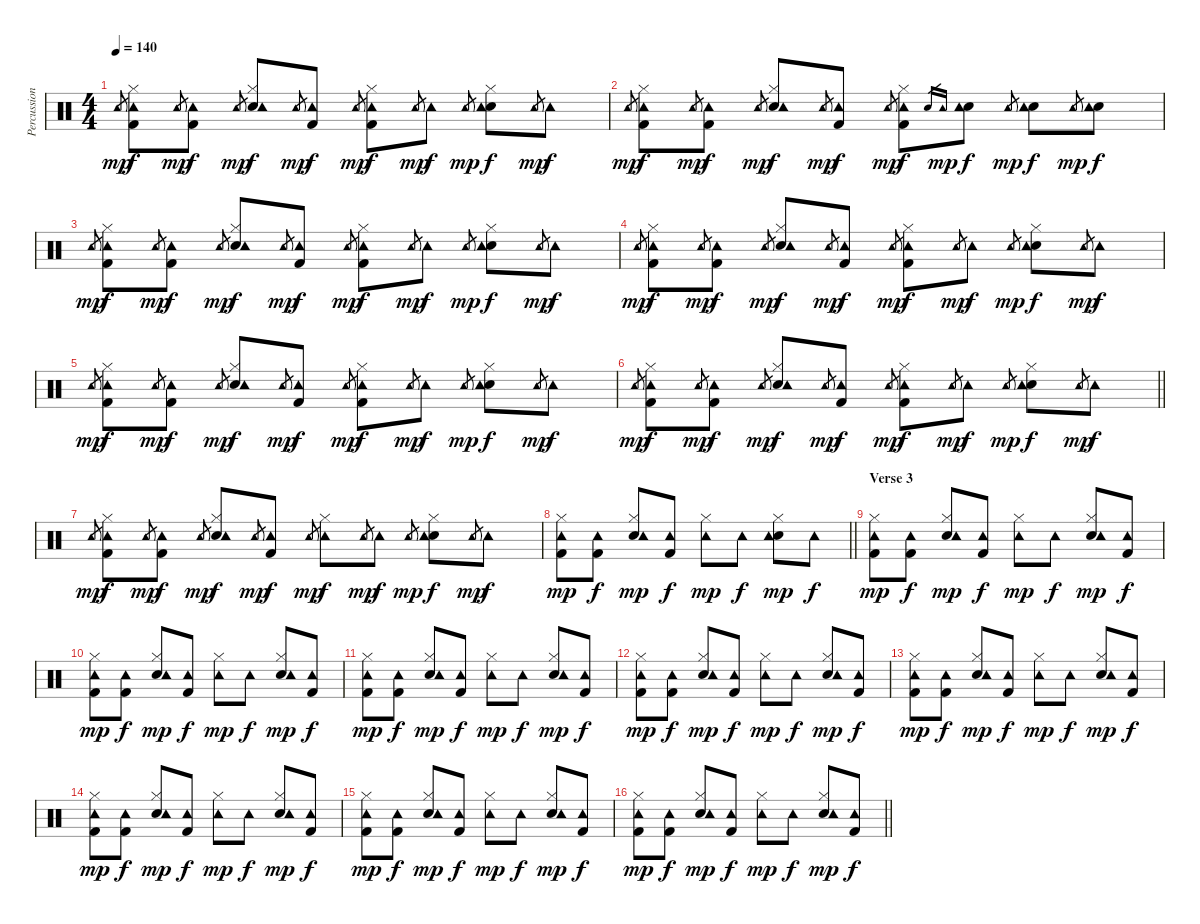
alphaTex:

\track ("Percussion" "Percussion") {instrument percussion}
\staff {score}
\articulation defaults
\ts (4 4)
\tempo 140
\clef neutral
\ks c "Tambourine (hit)".8{gr dy mp}
("Kick (hit) 2" "Hi-Hat (closed)" "Tambourine (hit)").8{dy f} "Tambourine (hit)".8{gr dy mp} ("Kick (hit) 2" "Tambourine (hit)").8{dy f} "Tambourine (hit)".8{gr dy mp} ("Snare (hit) 2" "Hi-Hat (closed)" "Tambourine (hit)").8{dy f} "Tambourine (hit)".8{gr dy mp} ("Kick (hit) 2" "Tambourine (hit)").8{dy f} "Tambourine (hit)".8{gr dy mp} ("Kick (hit) 2" "Hi-Hat (closed)" "Tambourine (hit)").8{dy f} "Tambourine (hit)".8{gr dy mp} "Tambourine (hit)".8{dy f} "Tambourine (hit)".8{gr dy mp} ("Snare (hit) 2" "Hi-Hat (closed)" "Tambourine (hit)").8{dy f} "Tambourine (hit)".8{gr dy mp} "Tambourine (hit)".8{dy f} |
"Tambourine (hit)".8{gr dy mp} ("Kick (hit) 2" "Hi-Hat (closed)" "Tambourine (hit)").8{dy f} "Tambourine (hit)".8{gr dy mp} ("Kick (hit) 2" "Tambourine (hit)").8{dy f} "Tambourine (hit)".8{gr dy mp} ("Snare (hit) 2" "Hi-Hat (closed)" "Tambourine (hit)").8{dy f} "Tambourine (hit)".8{gr dy mp} ("Kick (hit) 2" "Tambourine (hit)").8{dy f} "Tambourine (hit)".8{gr dy mp} ("Kick (hit) 2" "Hi-Hat (closed)" "Tambourine (hit)").8{dy f} "Snare (hit) 2".16{gr} "Tambourine (hit)".16{gr dy mp} ("Snare (hit) 2" "Tambourine (hit)").8{dy f} "Tambourine (hit)".8{gr dy mp} ("Snare (hit) 2" "Tambourine (hit)").8{dy f} "Tambourine (hit)".8{gr dy mp} ("Snare (hit) 2" "Tambourine (hit)").8{dy f} |
"Tambourine (hit)".8{gr dy mp} ("Kick (hit) 2" "Hi-Hat (closed)" "Tambourine (hit)").8{dy f} "Tambourine (hit)".8{gr dy mp} ("Kick (hit) 2" "Tambourine (hit)").8{dy f} "Tambourine (hit)".8{gr dy mp} ("Snare (hit) 2" "Hi-Hat (closed)" "Tambourine (hit)").8{dy f} "Tambourine (hit)".8{gr dy mp} ("Kick (hit) 2" "Tambourine (hit)").8{dy f} "Tambourine (hit)".8{gr dy mp} ("Kick (hit) 2" "Hi-Hat (closed)" "Tambourine (hit)").8{dy f} "Tambourine (hit)".8{gr dy mp} "Tambourine (hit)".8{dy f} "Tambourine (hit)".8{gr dy mp} ("Snare (hit) 2" "Hi-Hat (closed)" "Tambourine (hit)").8{dy f} "Tambourine (hit)".8{gr dy mp} "Tambourine (hit)".8{dy f} |
"Tambourine (hit)".8{gr dy mp} ("Kick (hit) 2" "Hi-Hat (closed)" "Tambourine (hit)").8{dy f} "Tambourine (hit)".8{gr dy mp} ("Kick (hit) 2" "Tambourine (hit)").8{dy f} "Tambourine (hit)".8{gr dy mp} ("Snare (hit) 2" "Hi-Hat (closed)" "Tambourine (hit)").8{dy f} "Tambourine (hit)".8{gr dy mp} ("Kick (hit) 2" "Tambourine (hit)").8{dy f} "Tambourine (hit)".8{gr dy mp} ("Kick (hit) 2" "Hi-Hat (closed)" "Tambourine (hit)").8{dy f} "Tambourine (hit)".8{gr dy mp} "Tambourine (hit)".8{dy f} "Tambourine (hit)".8{gr dy mp} ("Snare (hit) 2" "Hi-Hat (closed)" "Tambourine (hit)").8{dy f} "Tambourine (hit)".8{gr dy mp} "Tambourine (hit)".8{dy f} |
"Tambourine (hit)".8{gr dy mp} ("Kick (hit) 2" "Hi-Hat (closed)" "Tambourine (hit)").8{dy f} "Tambourine (hit)".8{gr dy mp} ("Kick (hit) 2" "Tambourine (hit)").8{dy f} "Tambourine (hit)".8{gr dy mp} ("Snare (hit) 2" "Hi-Hat (closed)" "Tambourine (hit)").8{dy f} "Tambourine (hit)".8{gr dy mp} ("Kick (hit) 2" "Tambourine (hit)").8{dy f} "Tambourine (hit)".8{gr dy mp} ("Kick (hit) 2" "Hi-Hat (closed)" "Tambourine (hit)").8{dy f} "Tambourine (hit)".8{gr dy mp} "Tambourine (hit)".8{dy f} "Tambourine (hit)".8{gr dy mp} ("Snare (hit) 2" "Hi-Hat (closed)" "Tambourine (hit)").8{dy f} "Tambourine (hit)".8{gr dy mp} "Tambourine (hit)".8{dy f} |
\barLineRight lightlight "Tambourine (hit)".8{gr dy mp}
("Kick (hit) 2" "Hi-Hat (closed)" "Tambourine (hit)").8{dy f} "Tambourine (hit)".8{gr dy mp} ("Kick (hit) 2" "Tambourine (hit)").8{dy f} "Tambourine (hit)".8{gr dy mp} ("Snare (hit) 2" "Hi-Hat (closed)" "Tambourine (hit)").8{dy f} "Tambourine (hit)".8{gr dy mp} ("Kick (hit) 2" "Tambourine (hit)").8{dy f} "Tambourine (hit)".8{gr dy mp} ("Kick (hit) 2" "Hi-Hat (closed)" "Tambourine (hit)").8{dy f} "Tambourine (hit)".8{gr dy mp} "Tambourine (hit)".8{dy f} "Tambourine (hit)".8{gr dy mp} ("Snare (hit) 2" "Hi-Hat (closed)" "Tambourine (hit)").8{dy f} "Tambourine (hit)".8{gr dy mp} "Tambourine (hit)".8{dy f} |
"Tambourine (hit)".8{gr dy mp} ("Kick (hit) 2" "Hi-Hat (closed)" "Tambourine (hit)").8{dy f} "Tambourine (hit)".8{gr dy mp} ("Kick (hit) 2" "Tambourine (hit)").8{dy f} "Tambourine (hit)".8{gr dy mp} ("Snare (hit) 2" "Hi-Hat (closed)" "Tambourine (hit)").8{dy f} "Tambourine (hit)".8{gr dy mp} ("Kick (hit) 2" "Tambourine (hit)").8{dy f} "Tambourine (hit)".8{gr dy mp} ("Hi-Hat (closed)" "Tambourine (hit)").8{dy f} "Tambourine (hit)".8{gr dy mp} "Tambourine (hit)".8{dy f} "Tambourine (hit)".8{gr dy mp} ("Snare (hit) 2" "Hi-Hat (closed)" "Tambourine (hit)").8{dy f} "Tambourine (hit)".8{gr dy mp} "Tambourine (hit)".8{dy f} |
\barLineRight lightlight
("Kick (hit) 2" "Hi-Hat (closed)" "Tambourine (hit)").8{dy mp} ("Kick (hit) 2" "Tambourine (hit)").8{dy f} ("Snare (hit) 2" "Hi-Hat (closed)" "Tambourine (hit)").8{dy mp} ("Kick (hit) 2" "Tambourine (hit)").8{dy f} ("Hi-Hat (closed)" "Tambourine (hit)").8{dy mp} "Tambourine (hit)".8{dy f} ("Snare (hit) 2" "Hi-Hat (closed)" "Tambourine (hit)").8{dy mp} "Tambourine (hit)".8{dy f} |
\section ("" "Verse 3")
("Kick (hit) 2" "Hi-Hat (closed)" "Tambourine (hit)").8{dy mp} ("Kick (hit) 2" "Tambourine (hit)").8{dy f} ("Snare (hit) 2" "Hi-Hat (closed)" "Tambourine (hit)").8{dy mp} ("Kick (hit) 2" "Tambourine (hit)").8{dy f} ("Hi-Hat (closed)" "Tambourine (hit)").8{dy mp} "Tambourine (hit)".8{dy f} ("Snare (hit) 2" "Hi-Hat (closed)" "Tambourine (hit)").8{dy mp} ("Kick (hit) 2" "Tambourine (hit)").8{dy f} |
("Kick (hit) 2" "Hi-Hat (closed)" "Tambourine (hit)").8{dy mp} ("Kick (hit) 2" "Tambourine (hit)").8{dy f} ("Snare (hit) 2" "Hi-Hat (closed)" "Tambourine (hit)").8{dy mp} ("Kick (hit) 2" "Tambourine (hit)").8{dy f} ("Hi-Hat (closed)" "Tambourine (hit)").8{dy mp} "Tambourine (hit)".8{dy f} ("Snare (hit) 2" "Hi-Hat (closed)" "Tambourine (hit)").8{dy mp} ("Kick (hit) 2" "Tambourine (hit)").8{dy f} |
("Kick (hit) 2" "Hi-Hat (closed)" "Tambourine (hit)").8{dy mp} ("Kick (hit) 2" "Tambourine (hit)").8{dy f} ("Snare (hit) 2" "Hi-Hat (closed)" "Tambourine (hit)").8{dy mp} ("Kick (hit) 2" "Tambourine (hit)").8{dy f} ("Hi-Hat (closed)" "Tambourine (hit)").8{dy mp} "Tambourine (hit)".8{dy f} ("Snare (hit) 2" "Hi-Hat (closed)" "Tambourine (hit)").8{dy mp} ("Kick (hit) 2" "Tambourine (hit)").8{dy f} |
("Kick (hit) 2" "Hi-Hat (closed)" "Tambourine (hit)").8{dy mp} ("Kick (hit) 2" "Tambourine (hit)").8{dy f} ("Snare (hit) 2" "Hi-Hat (closed)" "Tambourine (hit)").8{dy mp} ("Kick (hit) 2" "Tambourine (hit)").8{dy f} ("Hi-Hat (closed)" "Tambourine (hit)").8{dy mp} "Tambourine (hit)".8{dy f} ("Snare (hit) 2" "Hi-Hat (closed)" "Tambourine (hit)").8{dy mp} ("Kick (hit) 2" "Tambourine (hit)").8{dy f} |
("Kick (hit) 2" "Hi-Hat (closed)" "Tambourine (hit)").8{dy mp} ("Kick (hit) 2" "Tambourine (hit)").8{dy f} ("Snare (hit) 2" "Hi-Hat (closed)" "Tambourine (hit)").8{dy mp} ("Kick (hit) 2" "Tambourine (hit)").8{dy f} ("Hi-Hat (closed)" "Tambourine (hit)").8{dy mp} "Tambourine (hit)".8{dy f} ("Snare (hit) 2" "Hi-Hat (closed)" "Tambourine (hit)").8{dy mp} ("Kick (hit) 2" "Tambourine (hit)").8{dy f} |
("Kick (hit) 2" "Hi-Hat (closed)" "Tambourine (hit)").8{dy mp} ("Kick (hit) 2" "Tambourine (hit)").8{dy f} ("Snare (hit) 2" "Hi-Hat (closed)" "Tambourine (hit)").8{dy mp} ("Kick (hit) 2" "Tambourine (hit)").8{dy f} ("Hi-Hat (closed)" "Tambourine (hit)").8{dy mp} "Tambourine (hit)".8{dy f} ("Snare (hit) 2" "Hi-Hat (closed)" "Tambourine (hit)").8{dy mp} ("Kick (hit) 2" "Tambourine (hit)").8{dy f} |
("Kick (hit) 2" "Hi-Hat (closed)" "Tambourine (hit)").8{dy mp} ("Kick (hit) 2" "Tambourine (hit)").8{dy f} ("Snare (hit) 2" "Hi-Hat (closed)" "Tambourine (hit)").8{dy mp} ("Kick (hit) 2" "Tambourine (hit)").8{dy f} ("Hi-Hat (closed)" "Tambourine (hit)").8{dy mp} "Tambourine (hit)".8{dy f} ("Snare (hit) 2" "Hi-Hat (closed)" "Tambourine (hit)").8{dy mp} ("Kick (hit) 2" "Tambourine (hit)").8{dy f} |
\barLineRight lightlight
("Kick (hit) 2" "Hi-Hat (closed)" "Tambourine (hit)").8{dy mp} ("Kick (hit) 2" "Tambourine (hit)").8{dy f} ("Snare (hit) 2" "Hi-Hat (closed)" "Tambourine (hit)").8{dy mp} ("Kick (hit) 2" "Tambourine (hit)").8{dy f} ("Hi-Hat (closed)" "Tambourine (hit)").8{dy mp} "Tambourine (hit)".8{dy f} ("Snare (hit) 2" "Hi-Hat (closed)" "Tambourine (hit)").8{dy mp} ("Kick (hit) 2" "Tambourine (hit)").8{dy f}
